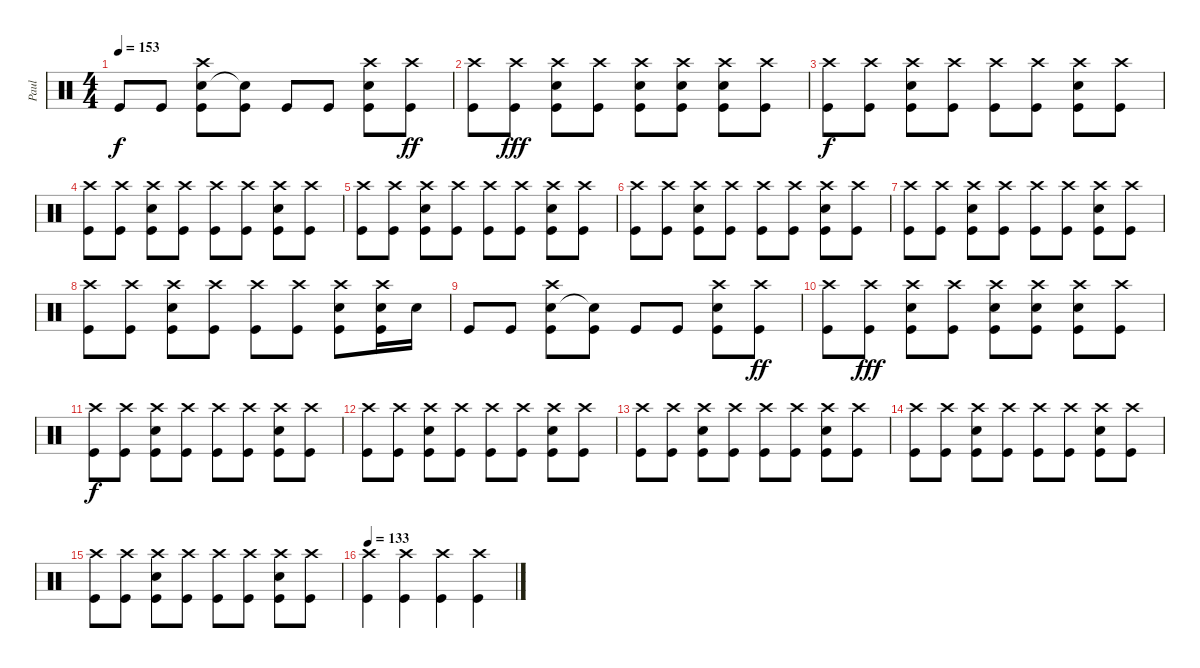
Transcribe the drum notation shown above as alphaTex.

\track ("Paul" "Paul") {instrument percussion}
\staff {score}
\articulation defaults
\ts (4 4)
\tempo 153
\clef neutral
\ks c "Kick (hit)".8{dy f} "Kick (hit)".8
("Electric Snare (hit)" "Crash high (hit)" "Kick (hit)").8 ("Snare (hit)"{t} "Kick (hit)").8 "Kick (hit)".8 "Kick (hit)".8 ("Electric Snare (hit)" "Crash high (hit)" "Kick (hit)").8 ("Crash high (hit)" "Kick (hit)").8{dy ff} |
("Kick (hit)" "Crash high (hit)").8 ("Kick (hit)" "Crash high (hit)").8{dy fff} ("Electric Snare (hit)" "Crash high (hit)" "Kick (hit)").8 ("Crash high (hit)" "Kick (hit)").8 ("Electric Snare (hit)" "Crash high (hit)" "Kick (hit)").8 ("Electric Snare (hit)" "Crash high (hit)" "Kick (hit)").8 ("Electric Snare (hit)" "Crash high (hit)" "Kick (hit)").8 ("Crash high (hit)" "Kick (hit)").8 |
("Kick (hit)" "Crash high (hit)").8{dy f} ("Kick (hit)" "Crash high (hit)").8 ("Electric Snare (hit)" "Crash high (hit)" "Kick (hit)").8 ("Crash high (hit)" "Kick (hit)").8 ("Kick (hit)" "Crash high (hit)").8 ("Kick (hit)" "Crash high (hit)").8 ("Electric Snare (hit)" "Crash high (hit)" "Kick (hit)").8 ("Crash high (hit)" "Kick (hit)").8 |
("Kick (hit)" "Crash high (hit)").8 ("Kick (hit)" "Crash high (hit)").8 ("Electric Snare (hit)" "Crash high (hit)" "Kick (hit)").8 ("Crash high (hit)" "Kick (hit)").8 ("Kick (hit)" "Crash high (hit)").8 ("Kick (hit)" "Crash high (hit)").8 ("Electric Snare (hit)" "Crash high (hit)" "Kick (hit)").8 ("Crash high (hit)" "Kick (hit)").8 |
("Kick (hit)" "Crash high (hit)").8 ("Kick (hit)" "Crash high (hit)").8 ("Electric Snare (hit)" "Crash high (hit)" "Kick (hit)").8 ("Crash high (hit)" "Kick (hit)").8 ("Kick (hit)" "Crash high (hit)").8 ("Kick (hit)" "Crash high (hit)").8 ("Electric Snare (hit)" "Crash high (hit)" "Kick (hit)").8 ("Crash high (hit)" "Kick (hit)").8 |
("Kick (hit)" "Crash high (hit)").8 ("Kick (hit)" "Crash high (hit)").8 ("Electric Snare (hit)" "Crash high (hit)" "Kick (hit)").8 ("Crash high (hit)" "Kick (hit)").8 ("Kick (hit)" "Crash high (hit)").8 ("Kick (hit)" "Crash high (hit)").8 ("Electric Snare (hit)" "Crash high (hit)" "Kick (hit)").8 ("Crash high (hit)" "Kick (hit)").8 |
("Kick (hit)" "Crash high (hit)").8 ("Kick (hit)" "Crash high (hit)").8 ("Electric Snare (hit)" "Crash high (hit)" "Kick (hit)").8 ("Crash high (hit)" "Kick (hit)").8 ("Kick (hit)" "Crash high (hit)").8 ("Kick (hit)" "Crash high (hit)").8 ("Electric Snare (hit)" "Crash high (hit)" "Kick (hit)").8 ("Crash high (hit)" "Kick (hit)").8 |
("Kick (hit)" "Crash high (hit)").8 ("Kick (hit)" "Crash high (hit)").8 ("Electric Snare (hit)" "Crash high (hit)" "Kick (hit)").8 ("Crash high (hit)" "Kick (hit)").8 ("Kick (hit)" "Crash high (hit)").8 ("Kick (hit)" "Crash high (hit)").8 ("Electric Snare (hit)" "Crash high (hit)" "Kick (hit)").8 ("Crash high (hit)" "Electric Snare (hit)" "Kick (hit)").16 "Electric Snare (hit)".16 |
"Kick (hit)".8 "Kick (hit)".8 ("Electric Snare (hit)" "Crash high (hit)" "Kick (hit)").8 ("Snare (hit)"{t} "Kick (hit)").8 "Kick (hit)".8 "Kick (hit)".8 ("Electric Snare (hit)" "Crash high (hit)" "Kick (hit)").8 ("Crash high (hit)" "Kick (hit)").8{dy ff} |
("Kick (hit)" "Crash high (hit)").8 ("Kick (hit)" "Crash high (hit)").8{dy fff} ("Electric Snare (hit)" "Crash high (hit)" "Kick (hit)").8 ("Crash high (hit)" "Kick (hit)").8 ("Electric Snare (hit)" "Crash high (hit)" "Kick (hit)").8 ("Electric Snare (hit)" "Crash high (hit)" "Kick (hit)").8 ("Electric Snare (hit)" "Crash high (hit)" "Kick (hit)").8 ("Crash high (hit)" "Kick (hit)").8 |
("Kick (hit)" "Crash high (hit)").8{dy f} ("Kick (hit)" "Crash high (hit)").8 ("Electric Snare (hit)" "Crash high (hit)" "Kick (hit)").8 ("Crash high (hit)" "Kick (hit)").8 ("Kick (hit)" "Crash high (hit)").8 ("Kick (hit)" "Crash high (hit)").8 ("Electric Snare (hit)" "Crash high (hit)" "Kick (hit)").8 ("Crash high (hit)" "Kick (hit)").8 |
("Kick (hit)" "Crash high (hit)").8 ("Kick (hit)" "Crash high (hit)").8 ("Electric Snare (hit)" "Crash high (hit)" "Kick (hit)").8 ("Crash high (hit)" "Kick (hit)").8 ("Kick (hit)" "Crash high (hit)").8 ("Kick (hit)" "Crash high (hit)").8 ("Electric Snare (hit)" "Crash high (hit)" "Kick (hit)").8 ("Crash high (hit)" "Kick (hit)").8 |
("Kick (hit)" "Crash high (hit)").8 ("Kick (hit)" "Crash high (hit)").8 ("Electric Snare (hit)" "Crash high (hit)" "Kick (hit)").8 ("Crash high (hit)" "Kick (hit)").8 ("Kick (hit)" "Crash high (hit)").8 ("Kick (hit)" "Crash high (hit)").8 ("Electric Snare (hit)" "Crash high (hit)" "Kick (hit)").8 ("Crash high (hit)" "Kick (hit)").8 |
("Kick (hit)" "Crash high (hit)").8 ("Kick (hit)" "Crash high (hit)").8 ("Electric Snare (hit)" "Crash high (hit)" "Kick (hit)").8 ("Crash high (hit)" "Kick (hit)").8 ("Kick (hit)" "Crash high (hit)").8 ("Kick (hit)" "Crash high (hit)").8 ("Electric Snare (hit)" "Crash high (hit)" "Kick (hit)").8 ("Crash high (hit)" "Kick (hit)").8 |
("Kick (hit)" "Crash high (hit)").8 ("Kick (hit)" "Crash high (hit)").8 ("Electric Snare (hit)" "Crash high (hit)" "Kick (hit)").8 ("Crash high (hit)" "Kick (hit)").8 ("Kick (hit)" "Crash high (hit)").8 ("Kick (hit)" "Crash high (hit)").8 ("Electric Snare (hit)" "Crash high (hit)" "Kick (hit)").8 ("Crash high (hit)" "Kick (hit)").8 |
\tempo 133
("Kick (hit)" "Crash high (hit)").4 ("Kick (hit)" "Crash high (hit)").4 ("Kick (hit)" "Crash high (hit)").4 ("Kick (hit)" "Crash high (hit)").4
